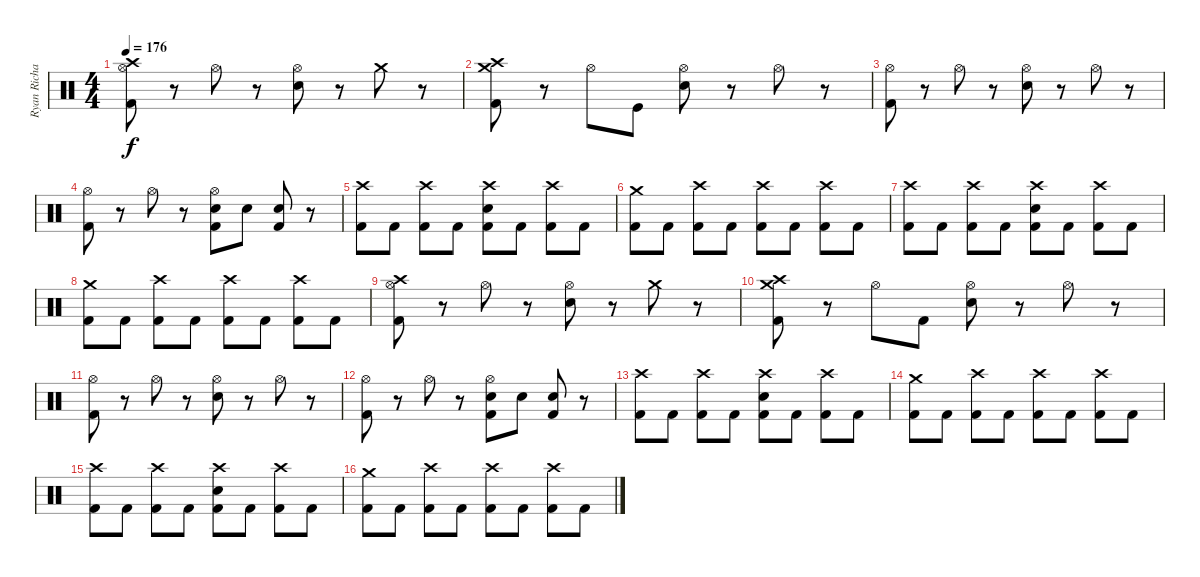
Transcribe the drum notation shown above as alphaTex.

\track ("Ryan Richards (drums)" "Ryan Richa") {instrument percussion}
\staff {score}
\articulation defaults
\ts (4 4)
\tempo 176
\clef neutral
\ks c
("Crash high (hit)" "Hi-Hat (open)" "Kick (hit) 2").8{dy f} r.8 "Hi-Hat (open)".8 r.8 ("Snare (hit) 2" "Hi-Hat (open)").8 r.8 "Crash medium (hit)".8 r.8 |
("Crash medium (hit)" "Crash high (hit)" "Kick (hit) 2").8 r.8 "Hi-Hat (open)".8 "Kick (hit)".8 ("Snare (hit) 2" "Hi-Hat (open)").8 r.8 "Hi-Hat (open)".8 r.8 |
("Hi-Hat (open)" "Kick (hit) 2").8 r.8 "Hi-Hat (open)".8 r.8 ("Snare (hit) 2" "Hi-Hat (open)").8 r.8 "Hi-Hat (open)".8 r.8 |
("Hi-Hat (open)" "Kick (hit) 2").8 r.8 "Hi-Hat (open)".8 r.8 ("Snare (hit) 2" "Hi-Hat (open)" "Kick (hit) 2").8 "Snare (hit) 2".8 ("Snare (hit) 2" "Kick (hit) 2").8 r.8 |
("Crash high (hit)" "Kick (hit) 2").8 "Kick (hit) 2".8 ("Crash high (hit)" "Kick (hit) 2").8 "Kick (hit) 2".8 ("Snare (hit) 2" "Crash high (hit)" "Kick (hit) 2").8 "Kick (hit) 2".8 ("Crash high (hit)" "Kick (hit) 2").8 "Kick (hit) 2".8 |
("Crash medium (hit)" "Kick (hit) 2").8 "Kick (hit) 2".8 ("Crash high (hit)" "Kick (hit) 2").8 "Kick (hit) 2".8 ("Crash high (hit)" "Kick (hit) 2").8 "Kick (hit) 2".8 ("Crash high (hit)" "Kick (hit) 2").8 "Kick (hit) 2".8 |
("Crash high (hit)" "Kick (hit) 2").8 "Kick (hit) 2".8 ("Crash high (hit)" "Kick (hit) 2").8 "Kick (hit) 2".8 ("Snare (hit) 2" "Crash high (hit)" "Kick (hit) 2").8 "Kick (hit) 2".8 ("Crash high (hit)" "Kick (hit) 2").8 "Kick (hit) 2".8 |
("Crash medium (hit)" "Kick (hit) 2").8 "Kick (hit) 2".8 ("Crash high (hit)" "Kick (hit) 2").8 "Kick (hit) 2".8 ("Crash high (hit)" "Kick (hit) 2").8 "Kick (hit) 2".8 ("Crash high (hit)" "Kick (hit) 2").8 "Kick (hit) 2".8 |
("Crash high (hit)" "Hi-Hat (open)" "Kick (hit) 2").8 r.8 "Hi-Hat (open)".8 r.8 ("Snare (hit) 2" "Hi-Hat (open)").8 r.8 "Crash medium (hit)".8 r.8 |
("Crash medium (hit)" "Crash high (hit)" "Kick (hit) 2").8 r.8 "Hi-Hat (open)".8 "Kick (hit) 2".8 ("Snare (hit) 2" "Hi-Hat (open)").8 r.8 "Hi-Hat (open)".8 r.8 |
("Hi-Hat (open)" "Kick (hit) 2").8 r.8 "Hi-Hat (open)".8 r.8 ("Snare (hit) 2" "Hi-Hat (open)").8 r.8 "Hi-Hat (open)".8 r.8 |
("Hi-Hat (open)" "Kick (hit) 2").8 r.8 "Hi-Hat (open)".8 r.8 ("Snare (hit) 2" "Hi-Hat (open)" "Kick (hit) 2").8 "Snare (hit) 2".8 ("Snare (hit) 2" "Kick (hit) 2").8 r.8 |
("Crash high (hit)" "Kick (hit) 2").8 "Kick (hit) 2".8 ("Crash high (hit)" "Kick (hit) 2").8 "Kick (hit) 2".8 ("Snare (hit) 2" "Crash high (hit)" "Kick (hit) 2").8 "Kick (hit) 2".8 ("Crash high (hit)" "Kick (hit) 2").8 "Kick (hit) 2".8 |
("Crash medium (hit)" "Kick (hit) 2").8 "Kick (hit) 2".8 ("Crash high (hit)" "Kick (hit) 2").8 "Kick (hit) 2".8 ("Crash high (hit)" "Kick (hit) 2").8 "Kick (hit) 2".8 ("Crash high (hit)" "Kick (hit) 2").8 "Kick (hit) 2".8 |
("Crash high (hit)" "Kick (hit) 2").8 "Kick (hit) 2".8 ("Crash high (hit)" "Kick (hit) 2").8 "Kick (hit) 2".8 ("Snare (hit) 2" "Crash high (hit)" "Kick (hit) 2").8 "Kick (hit) 2".8 ("Crash high (hit)" "Kick (hit) 2").8 "Kick (hit) 2".8 |
("Crash medium (hit)" "Kick (hit) 2").8 "Kick (hit) 2".8 ("Crash high (hit)" "Kick (hit) 2").8 "Kick (hit) 2".8 ("Crash high (hit)" "Kick (hit) 2").8 "Kick (hit) 2".8 ("Crash high (hit)" "Kick (hit) 2").8 "Kick (hit) 2".8
